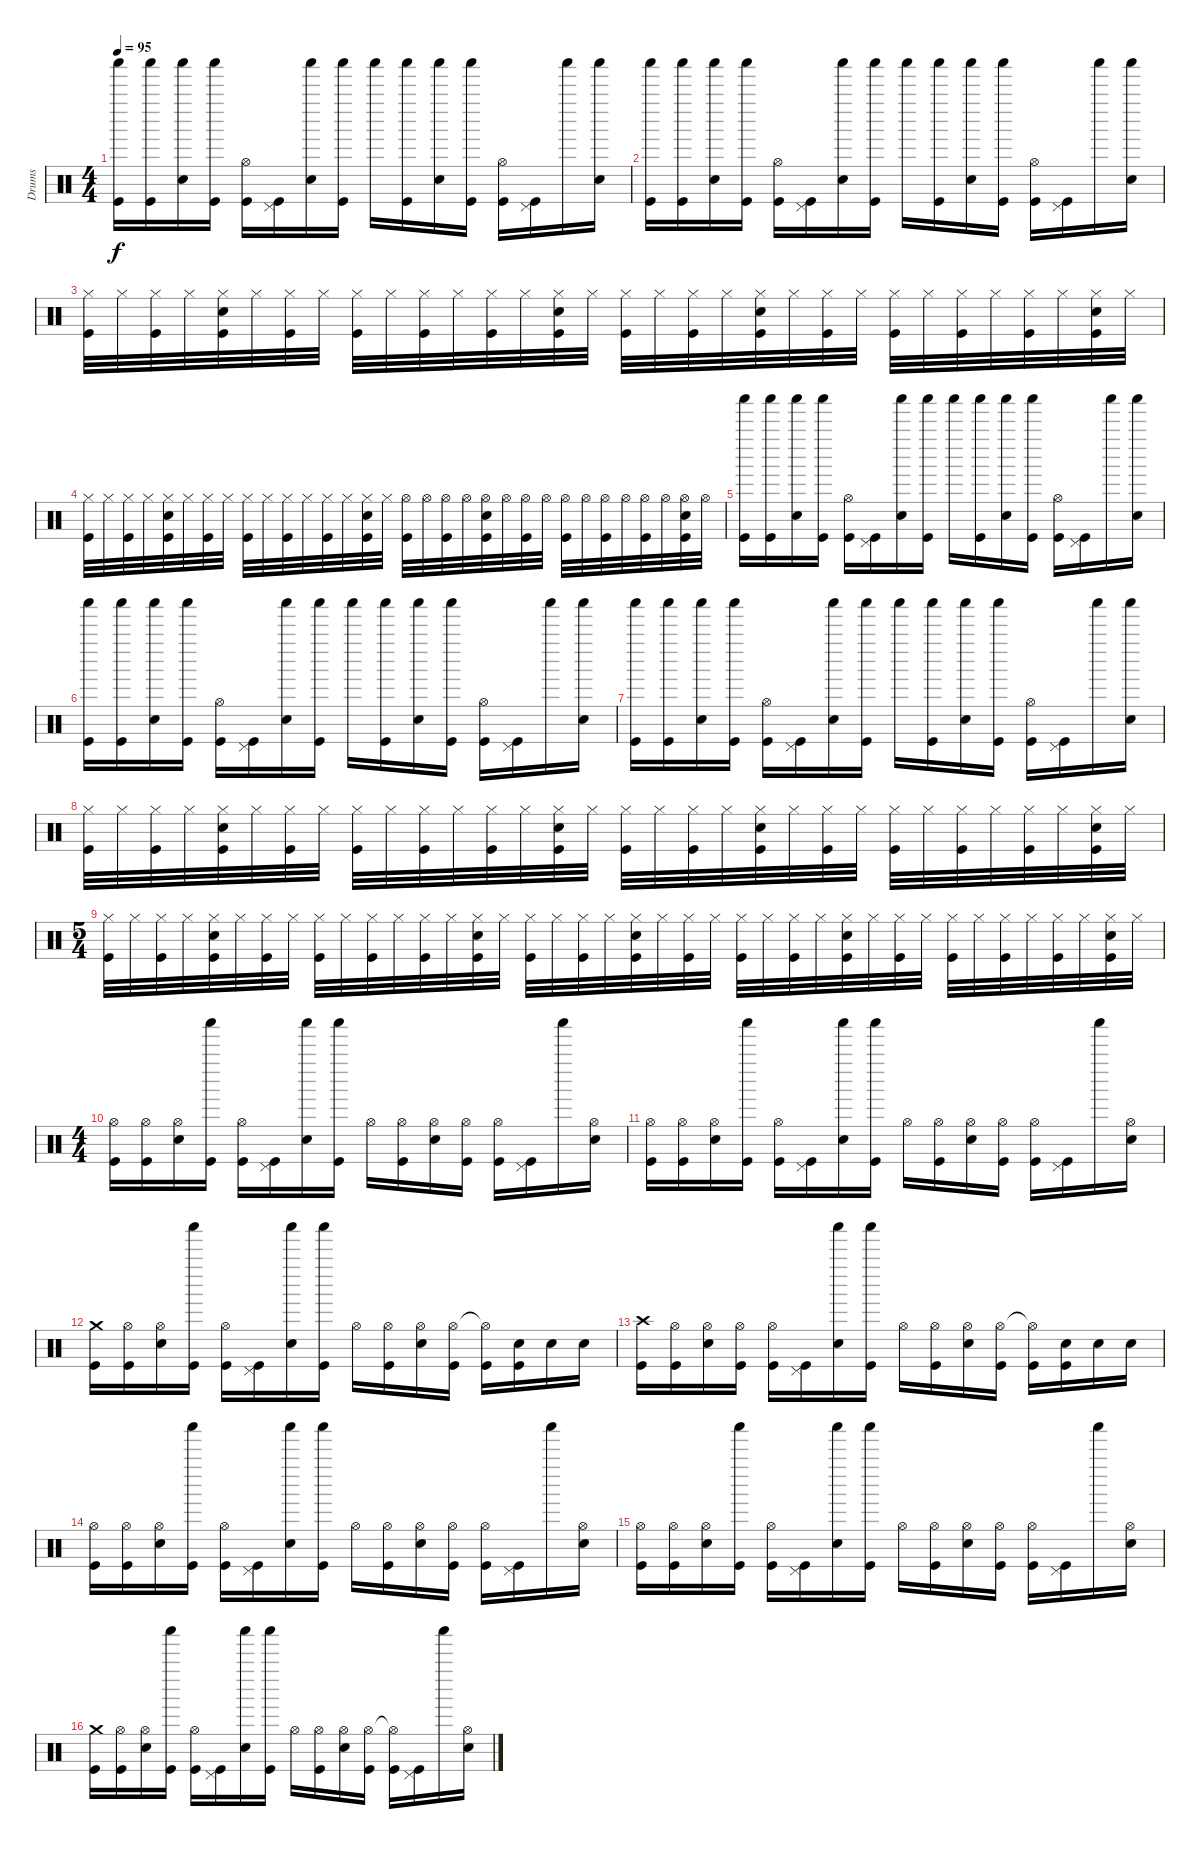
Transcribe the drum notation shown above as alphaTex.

\track ("Drums" "Drums") {instrument percussion}
\staff {score}
\articulation defaults
\ts (4 4)
\tempo 95
\clef neutral
\ks c
("Shaker (hit)" "Kick (hit)").16{dy f} ("Shaker (hit)" "Kick (hit)").16 ("Shaker (hit)" "Electric Snare (hit)").16 ("Shaker (hit)" "Kick (hit)").16 ("Hi-Hat (open)" "Kick (hit)").16 ("Pedal Hi-Hat (hit)" "Kick (hit)").16 ("Shaker (hit)" "Electric Snare (hit)").16 ("Shaker (hit)" "Kick (hit)").16 "Shaker (hit)".16 ("Shaker (hit)" "Kick (hit)").16 ("Shaker (hit)" "Electric Snare (hit)").16 ("Shaker (hit)" "Kick (hit)").16 ("Hi-Hat (open)" "Kick (hit)").16 ("Pedal Hi-Hat (hit)" "Kick (hit)").16 "Shaker (hit)".16 ("Shaker (hit)" "Electric Snare (hit)").16 |
("Shaker (hit)" "Kick (hit)").16 ("Shaker (hit)" "Kick (hit)").16 ("Shaker (hit)" "Electric Snare (hit)").16 ("Shaker (hit)" "Kick (hit)").16 ("Hi-Hat (open)" "Kick (hit)").16 ("Pedal Hi-Hat (hit)" "Kick (hit)").16 ("Shaker (hit)" "Electric Snare (hit)").16 ("Shaker (hit)" "Kick (hit)").16 "Shaker (hit)".16 ("Shaker (hit)" "Kick (hit)").16 ("Shaker (hit)" "Electric Snare (hit)").16 ("Shaker (hit)" "Kick (hit)").16 ("Hi-Hat (open)" "Kick (hit)").16 ("Pedal Hi-Hat (hit)" "Kick (hit)").16 "Shaker (hit)".16 ("Shaker (hit)" "Electric Snare (hit)").16 |
("Hi-Hat (closed)" "Kick (hit)").32 "Hi-Hat (closed)".32 ("Hi-Hat (closed)" "Kick (hit)").32 "Hi-Hat (closed)".32 ("Hi-Hat (closed)" "Electric Snare (hit)" "Kick (hit)").32 "Hi-Hat (closed)".32 ("Hi-Hat (closed)" "Kick (hit)").32 "Hi-Hat (closed)".32 ("Hi-Hat (closed)" "Kick (hit)").32 "Hi-Hat (closed)".32 ("Hi-Hat (closed)" "Kick (hit)").32 "Hi-Hat (closed)".32 ("Hi-Hat (closed)" "Kick (hit)").32 "Hi-Hat (closed)".32 ("Hi-Hat (closed)" "Electric Snare (hit)" "Kick (hit)").32 "Hi-Hat (closed)".32 ("Hi-Hat (closed)" "Kick (hit)").32 "Hi-Hat (closed)".32 ("Hi-Hat (closed)" "Kick (hit)").32 "Hi-Hat (closed)".32 ("Hi-Hat (closed)" "Electric Snare (hit)" "Kick (hit)").32 "Hi-Hat (closed)".32 ("Hi-Hat (closed)" "Kick (hit)").32 "Hi-Hat (closed)".32 ("Hi-Hat (closed)" "Kick (hit)").32 "Hi-Hat (closed)".32 ("Hi-Hat (closed)" "Kick (hit)").32 "Hi-Hat (closed)".32 ("Hi-Hat (closed)" "Kick (hit)").32 "Hi-Hat (closed)".32 ("Hi-Hat (closed)" "Electric Snare (hit)" "Kick (hit)").32 "Hi-Hat (closed)".32 |
("Hi-Hat (closed)" "Kick (hit)").32 "Hi-Hat (closed)".32 ("Hi-Hat (closed)" "Kick (hit)").32 "Hi-Hat (closed)".32 ("Hi-Hat (closed)" "Electric Snare (hit)" "Kick (hit)").32 "Hi-Hat (closed)".32 ("Hi-Hat (closed)" "Kick (hit)").32 "Hi-Hat (closed)".32 ("Hi-Hat (closed)" "Kick (hit)").32 "Hi-Hat (closed)".32 ("Hi-Hat (closed)" "Kick (hit)").32 "Hi-Hat (closed)".32 ("Hi-Hat (closed)" "Kick (hit)").32 "Hi-Hat (closed)".32 ("Hi-Hat (closed)" "Electric Snare (hit)" "Kick (hit)").32 "Hi-Hat (closed)".32 ("Hi-Hat (open)" "Kick (hit)").32 "Hi-Hat (open)".32 ("Hi-Hat (open)" "Kick (hit)").32 "Hi-Hat (open)".32 ("Hi-Hat (open)" "Electric Snare (hit)" "Kick (hit)").32 "Hi-Hat (open)".32 ("Hi-Hat (open)" "Kick (hit)").32 "Hi-Hat (open)".32 ("Hi-Hat (open)" "Kick (hit)").32 "Hi-Hat (open)".32 ("Hi-Hat (open)" "Kick (hit)").32 "Hi-Hat (open)".32 ("Hi-Hat (open)" "Kick (hit)").32 "Hi-Hat (open)".32 ("Hi-Hat (open)" "Electric Snare (hit)" "Kick (hit)").32 "Hi-Hat (open)".32 |
("Shaker (hit)" "Kick (hit)").16 ("Shaker (hit)" "Kick (hit)").16 ("Shaker (hit)" "Electric Snare (hit)").16 ("Shaker (hit)" "Kick (hit)").16 ("Hi-Hat (open)" "Kick (hit)").16 ("Pedal Hi-Hat (hit)" "Kick (hit)").16 ("Shaker (hit)" "Electric Snare (hit)").16 ("Shaker (hit)" "Kick (hit)").16 "Shaker (hit)".16 ("Shaker (hit)" "Kick (hit)").16 ("Shaker (hit)" "Electric Snare (hit)").16 ("Shaker (hit)" "Kick (hit)").16 ("Hi-Hat (open)" "Kick (hit)").16 ("Pedal Hi-Hat (hit)" "Kick (hit)").16 "Shaker (hit)".16 ("Shaker (hit)" "Electric Snare (hit)").16 |
("Shaker (hit)" "Kick (hit)").16 ("Shaker (hit)" "Kick (hit)").16 ("Shaker (hit)" "Electric Snare (hit)").16 ("Shaker (hit)" "Kick (hit)").16 ("Hi-Hat (open)" "Kick (hit)").16 ("Pedal Hi-Hat (hit)" "Kick (hit)").16 ("Shaker (hit)" "Electric Snare (hit)").16 ("Shaker (hit)" "Kick (hit)").16 "Shaker (hit)".16 ("Shaker (hit)" "Kick (hit)").16 ("Shaker (hit)" "Electric Snare (hit)").16 ("Shaker (hit)" "Kick (hit)").16 ("Hi-Hat (open)" "Kick (hit)").16 ("Pedal Hi-Hat (hit)" "Kick (hit)").16 "Shaker (hit)".16 ("Shaker (hit)" "Electric Snare (hit)").16 |
("Shaker (hit)" "Kick (hit)").16 ("Shaker (hit)" "Kick (hit)").16 ("Shaker (hit)" "Electric Snare (hit)").16 ("Shaker (hit)" "Kick (hit)").16 ("Hi-Hat (open)" "Kick (hit)").16 ("Pedal Hi-Hat (hit)" "Kick (hit)").16 ("Shaker (hit)" "Electric Snare (hit)").16 ("Shaker (hit)" "Kick (hit)").16 "Shaker (hit)".16 ("Shaker (hit)" "Kick (hit)").16 ("Shaker (hit)" "Electric Snare (hit)").16 ("Shaker (hit)" "Kick (hit)").16 ("Hi-Hat (open)" "Kick (hit)").16 ("Pedal Hi-Hat (hit)" "Kick (hit)").16 "Shaker (hit)".16 ("Shaker (hit)" "Electric Snare (hit)").16 |
("Hi-Hat (closed)" "Kick (hit)").32 "Hi-Hat (closed)".32 ("Hi-Hat (closed)" "Kick (hit)").32 "Hi-Hat (closed)".32 ("Hi-Hat (closed)" "Electric Snare (hit)" "Kick (hit)").32 "Hi-Hat (closed)".32 ("Hi-Hat (closed)" "Kick (hit)").32 "Hi-Hat (closed)".32 ("Hi-Hat (closed)" "Kick (hit)").32 "Hi-Hat (closed)".32 ("Hi-Hat (closed)" "Kick (hit)").32 "Hi-Hat (closed)".32 ("Hi-Hat (closed)" "Kick (hit)").32 "Hi-Hat (closed)".32 ("Hi-Hat (closed)" "Electric Snare (hit)" "Kick (hit)").32 "Hi-Hat (closed)".32 ("Hi-Hat (closed)" "Kick (hit)").32 "Hi-Hat (closed)".32 ("Hi-Hat (closed)" "Kick (hit)").32 "Hi-Hat (closed)".32 ("Hi-Hat (closed)" "Electric Snare (hit)" "Kick (hit)").32 "Hi-Hat (closed)".32 ("Hi-Hat (closed)" "Kick (hit)").32 "Hi-Hat (closed)".32 ("Hi-Hat (closed)" "Kick (hit)").32 "Hi-Hat (closed)".32 ("Hi-Hat (closed)" "Kick (hit)").32 "Hi-Hat (closed)".32 ("Hi-Hat (closed)" "Kick (hit)").32 "Hi-Hat (closed)".32 ("Hi-Hat (closed)" "Electric Snare (hit)" "Kick (hit)").32 "Hi-Hat (closed)".32 |
\ts (5 4)
("Hi-Hat (closed)" "Kick (hit)").32 "Hi-Hat (closed)".32 ("Hi-Hat (closed)" "Kick (hit)").32 "Hi-Hat (closed)".32 ("Hi-Hat (closed)" "Electric Snare (hit)" "Kick (hit)").32 "Hi-Hat (closed)".32 ("Hi-Hat (closed)" "Kick (hit)").32 "Hi-Hat (closed)".32 ("Hi-Hat (closed)" "Kick (hit)").32 "Hi-Hat (closed)".32 ("Hi-Hat (closed)" "Kick (hit)").32 "Hi-Hat (closed)".32 ("Hi-Hat (closed)" "Kick (hit)").32 "Hi-Hat (closed)".32 ("Hi-Hat (closed)" "Electric Snare (hit)" "Kick (hit)").32 "Hi-Hat (closed)".32 ("Hi-Hat (closed)" "Kick (hit)").32 "Hi-Hat (closed)".32 ("Hi-Hat (closed)" "Kick (hit)").32 "Hi-Hat (closed)".32 ("Hi-Hat (closed)" "Electric Snare (hit)" "Kick (hit)").32 "Hi-Hat (closed)".32 ("Hi-Hat (closed)" "Kick (hit)").32 "Hi-Hat (closed)".32 ("Hi-Hat (closed)" "Kick (hit)").32 "Hi-Hat (closed)".32 ("Hi-Hat (closed)" "Kick (hit)").32 "Hi-Hat (closed)".32 ("Hi-Hat (closed)" "Electric Snare (hit)" "Kick (hit)").32 "Hi-Hat (closed)".32 ("Hi-Hat (closed)" "Kick (hit)").32 "Hi-Hat (closed)".32 ("Hi-Hat (closed)" "Kick (hit)").32 "Hi-Hat (closed)".32 ("Hi-Hat (closed)" "Kick (hit)").32 "Hi-Hat (closed)".32 ("Hi-Hat (closed)" "Kick (hit)").32 "Hi-Hat (closed)".32 ("Hi-Hat (closed)" "Electric Snare (hit)" "Kick (hit)").32 "Hi-Hat (closed)".32 |
\ts (4 4)
("Hi-Hat (open)" "Kick (hit)").16 ("Hi-Hat (open)" "Kick (hit)").16 ("Hi-Hat (open)" "Electric Snare (hit)").16 ("Shaker (hit)" "Kick (hit)").16 ("Hi-Hat (open)" "Kick (hit)").16 ("Pedal Hi-Hat (hit)" "Kick (hit)").16 ("Shaker (hit)" "Electric Snare (hit)").16 ("Shaker (hit)" "Kick (hit)").16 "Hi-Hat (open)".16 ("Hi-Hat (open)" "Kick (hit)").16 ("Hi-Hat (open)" "Electric Snare (hit)").16 ("Hi-Hat (open)" "Kick (hit)").16 ("Hi-Hat (open)" "Kick (hit)").16 ("Pedal Hi-Hat (hit)" "Kick (hit)").16 "Shaker (hit)".16 ("Hi-Hat (open)" "Electric Snare (hit)").16 |
("Hi-Hat (open)" "Kick (hit)").16 ("Hi-Hat (open)" "Kick (hit)").16 ("Hi-Hat (open)" "Electric Snare (hit)").16 ("Shaker (hit)" "Kick (hit)").16 ("Hi-Hat (open)" "Kick (hit)").16 ("Pedal Hi-Hat (hit)" "Kick (hit)").16 ("Shaker (hit)" "Electric Snare (hit)").16 ("Shaker (hit)" "Kick (hit)").16 "Hi-Hat (open)".16 ("Hi-Hat (open)" "Kick (hit)").16 ("Hi-Hat (open)" "Electric Snare (hit)").16 ("Hi-Hat (open)" "Kick (hit)").16 ("Hi-Hat (open)" "Kick (hit)").16 ("Pedal Hi-Hat (hit)" "Kick (hit)").16 "Shaker (hit)".16 ("Hi-Hat (open)" "Electric Snare (hit)").16 |
("Crash medium (hit)" "Kick (hit)").16 ("Hi-Hat (open)" "Kick (hit)").16 ("Hi-Hat (open)" "Electric Snare (hit)").16 ("Shaker (hit)" "Kick (hit)").16 ("Hi-Hat (open)" "Kick (hit)").16 ("Pedal Hi-Hat (hit)" "Kick (hit)").16 ("Shaker (hit)" "Electric Snare (hit)").16 ("Shaker (hit)" "Kick (hit)").16 "Hi-Hat (open)".16 ("Hi-Hat (open)" "Kick (hit)").16 ("Hi-Hat (open)" "Electric Snare (hit)").16 ("Hi-Hat (open)" "Kick (hit)").16 ("Hi-Hat (open)"{t} "Kick (hit)").16 ("Electric Snare (hit)" "Kick (hit)").16 "Electric Snare (hit)".16 "Electric Snare (hit)".16 |
("Crash high (hit)" "Kick (hit)").16 ("Hi-Hat (open)" "Kick (hit)").16 ("Hi-Hat (open)" "Electric Snare (hit)").16 ("Hi-Hat (open)" "Kick (hit)").16 ("Hi-Hat (open)" "Kick (hit)").16 ("Pedal Hi-Hat (hit)" "Kick (hit)").16 ("Shaker (hit)" "Electric Snare (hit)").16 ("Shaker (hit)" "Kick (hit)").16 "Hi-Hat (open)".16 ("Hi-Hat (open)" "Kick (hit)").16 ("Hi-Hat (open)" "Electric Snare (hit)").16 ("Hi-Hat (open)" "Kick (hit)").16 ("Hi-Hat (open)"{t} "Kick (hit)").16 ("Electric Snare (hit)" "Kick (hit)").16 "Electric Snare (hit)".16 "Electric Snare (hit)".16 |
("Hi-Hat (open)" "Kick (hit)").16 ("Hi-Hat (open)" "Kick (hit)").16 ("Hi-Hat (open)" "Electric Snare (hit)").16 ("Shaker (hit)" "Kick (hit)").16 ("Hi-Hat (open)" "Kick (hit)").16 ("Pedal Hi-Hat (hit)" "Kick (hit)").16 ("Shaker (hit)" "Electric Snare (hit)").16 ("Shaker (hit)" "Kick (hit)").16 "Hi-Hat (open)".16 ("Hi-Hat (open)" "Kick (hit)").16 ("Hi-Hat (open)" "Electric Snare (hit)").16 ("Hi-Hat (open)" "Kick (hit)").16 ("Hi-Hat (open)" "Kick (hit)").16 ("Pedal Hi-Hat (hit)" "Kick (hit)").16 "Shaker (hit)".16 ("Hi-Hat (open)" "Electric Snare (hit)").16 |
("Hi-Hat (open)" "Kick (hit)").16 ("Hi-Hat (open)" "Kick (hit)").16 ("Hi-Hat (open)" "Electric Snare (hit)").16 ("Shaker (hit)" "Kick (hit)").16 ("Hi-Hat (open)" "Kick (hit)").16 ("Pedal Hi-Hat (hit)" "Kick (hit)").16 ("Shaker (hit)" "Electric Snare (hit)").16 ("Shaker (hit)" "Kick (hit)").16 "Hi-Hat (open)".16 ("Hi-Hat (open)" "Kick (hit)").16 ("Hi-Hat (open)" "Electric Snare (hit)").16 ("Hi-Hat (open)" "Kick (hit)").16 ("Hi-Hat (open)" "Kick (hit)").16 ("Pedal Hi-Hat (hit)" "Kick (hit)").16 "Shaker (hit)".16 ("Hi-Hat (open)" "Electric Snare (hit)").16 |
("Crash medium (hit)" "Kick (hit)").16 ("Hi-Hat (open)" "Kick (hit)").16 ("Hi-Hat (open)" "Electric Snare (hit)").16 ("Shaker (hit)" "Kick (hit)").16 ("Hi-Hat (open)" "Kick (hit)").16 ("Pedal Hi-Hat (hit)" "Kick (hit)").16 ("Shaker (hit)" "Electric Snare (hit)").16 ("Shaker (hit)" "Kick (hit)").16 "Hi-Hat (open)".16 ("Hi-Hat (open)" "Kick (hit)").16 ("Hi-Hat (open)" "Electric Snare (hit)").16 ("Hi-Hat (open)" "Kick (hit)").16 ("Hi-Hat (open)"{t} "Kick (hit)").16 ("Pedal Hi-Hat (hit)" "Kick (hit)").16 "Shaker (hit)".16 ("Hi-Hat (open)" "Electric Snare (hit)").16
